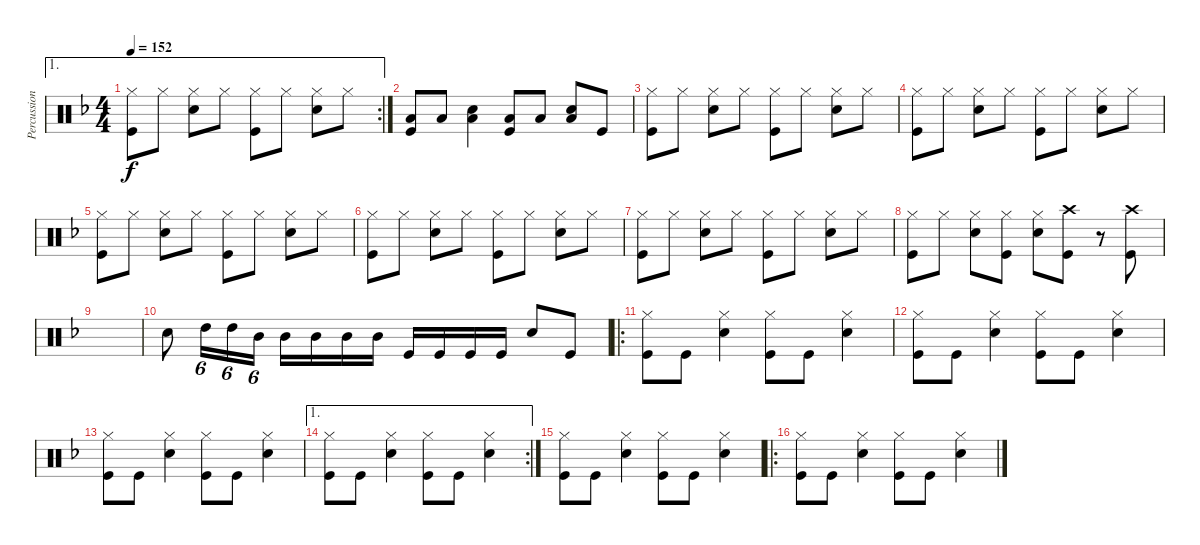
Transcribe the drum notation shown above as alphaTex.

\track ("Percussion" "Percussion") {instrument percussion}
\staff {score}
\articulation defaults
\ae 1
\rc 2
\ts (4 4)
\tempo 152
\clef neutral
\ks f
("Hi-Hat (closed)" "Kick (hit)").8{dy f} "Hi-Hat (closed)".8 ("Hi-Hat (closed)" "Electric Snare (hit)").8 "Hi-Hat (closed)".8 ("Hi-Hat (closed)" "Kick (hit)").8 "Hi-Hat (closed)".8 ("Hi-Hat (closed)" "Electric Snare (hit)").8 "Hi-Hat (closed)".8 |
("Low Tom (hit)" "Kick (hit)").8 "Low Tom (hit)".8 ("Electric Snare (hit)" "Low Tom (hit)").4 ("Low Tom (hit)" "Kick (hit)").8 "Low Tom (hit)".8 ("Low Tom (hit)" "Electric Snare (hit)").8 "Kick (hit)".8 |
("Hi-Hat (closed)" "Kick (hit)").8 "Hi-Hat (closed)".8 ("Hi-Hat (closed)" "Electric Snare (hit)").8 "Hi-Hat (closed)".8 ("Hi-Hat (closed)" "Kick (hit)").8 "Hi-Hat (closed)".8 ("Hi-Hat (closed)" "Electric Snare (hit)").8 "Hi-Hat (closed)".8 |
("Hi-Hat (closed)" "Kick (hit)").8 "Hi-Hat (closed)".8 ("Hi-Hat (closed)" "Electric Snare (hit)").8 "Hi-Hat (closed)".8 ("Hi-Hat (closed)" "Kick (hit)").8 "Hi-Hat (closed)".8 ("Hi-Hat (closed)" "Electric Snare (hit)").8 "Hi-Hat (closed)".8 |
("Hi-Hat (closed)" "Kick (hit)").8 "Hi-Hat (closed)".8 ("Hi-Hat (closed)" "Electric Snare (hit)").8 "Hi-Hat (closed)".8 ("Hi-Hat (closed)" "Kick (hit)").8 "Hi-Hat (closed)".8 ("Hi-Hat (closed)" "Electric Snare (hit)").8 "Hi-Hat (closed)".8 |
("Hi-Hat (closed)" "Kick (hit)").8 "Hi-Hat (closed)".8 ("Hi-Hat (closed)" "Electric Snare (hit)").8 "Hi-Hat (closed)".8 ("Hi-Hat (closed)" "Kick (hit)").8 "Hi-Hat (closed)".8 ("Hi-Hat (closed)" "Electric Snare (hit)").8 "Hi-Hat (closed)".8 |
("Hi-Hat (closed)" "Kick (hit)").8 "Hi-Hat (closed)".8 ("Hi-Hat (closed)" "Electric Snare (hit)").8 "Hi-Hat (closed)".8 ("Hi-Hat (closed)" "Kick (hit)").8 "Hi-Hat (closed)".8 ("Hi-Hat (closed)" "Electric Snare (hit)").8 "Hi-Hat (closed)".8 |
("Hi-Hat (closed)" "Kick (hit)").8 "Hi-Hat (closed)".8 ("Hi-Hat (closed)" "Electric Snare (hit)").8 ("Hi-Hat (closed)" "Kick (hit)").8 ("Hi-Hat (closed)" "Electric Snare (hit)").8 ("Crash high (hit)" "Kick (hit)").8 r.8 ("Crash high (hit)" "Kick (hit)").8 |
|
"Electric Snare (hit)".8 "High Tom (hit)".16{tu (6 4)} "High Tom (hit)".16{tu (6 4)} "Mid Tom (hit)".16{tu (6 4)} "Mid Tom (hit)".16 "Mid Tom (hit)".16 "Mid Tom (hit)".16 "Mid Tom (hit)".16 "Kick (hit)".16 "Kick (hit)".16 "Kick (hit)".16 "Kick (hit)".16 "Electric Snare (hit)".8 "Kick (hit)".8 |
\ro
("Hi-Hat (closed)" "Kick (hit)").8 "Kick (hit)".8 ("Hi-Hat (closed)" "Electric Snare (hit)").4 ("Hi-Hat (closed)" "Kick (hit)").8 "Kick (hit)".8 ("Hi-Hat (closed)" "Electric Snare (hit)").4 |
("Hi-Hat (closed)" "Kick (hit)").8 "Kick (hit)".8 ("Hi-Hat (closed)" "Electric Snare (hit)").4 ("Hi-Hat (closed)" "Kick (hit)").8 "Kick (hit)".8 ("Hi-Hat (closed)" "Electric Snare (hit)").4 |
("Hi-Hat (closed)" "Kick (hit)").8 "Kick (hit)".8 ("Hi-Hat (closed)" "Electric Snare (hit)").4 ("Hi-Hat (closed)" "Kick (hit)").8 "Kick (hit)".8 ("Hi-Hat (closed)" "Electric Snare (hit)").4 |
\ae 1
\rc 2
("Hi-Hat (closed)" "Kick (hit)").8 "Kick (hit)".8 ("Hi-Hat (closed)" "Electric Snare (hit)").4 ("Hi-Hat (closed)" "Kick (hit)").8 "Kick (hit)".8 ("Hi-Hat (closed)" "Electric Snare (hit)").4 |
("Hi-Hat (closed)" "Kick (hit)").8 "Kick (hit)".8 ("Hi-Hat (closed)" "Electric Snare (hit)").4 ("Hi-Hat (closed)" "Kick (hit)").8 "Kick (hit)".8 ("Hi-Hat (closed)" "Electric Snare (hit)").4 |
\ro
("Hi-Hat (closed)" "Kick (hit)").8 "Kick (hit)".8 ("Hi-Hat (closed)" "Electric Snare (hit)").4 ("Hi-Hat (closed)" "Kick (hit)").8 "Kick (hit)".8 ("Hi-Hat (closed)" "Electric Snare (hit)").4
